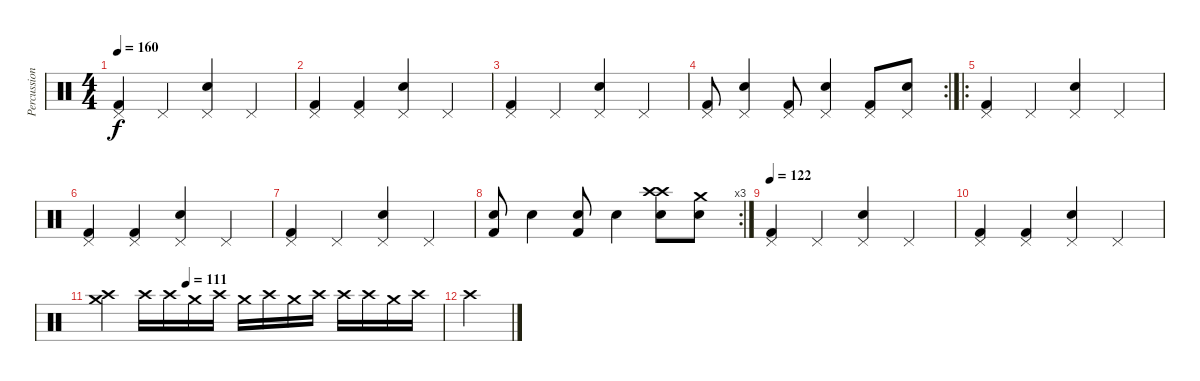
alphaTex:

\track ("Percussion" "Percussion") {instrument percussion}
\staff {score}
\articulation defaults
\ts (4 4)
\tempo 160
\clef neutral
\ks c
("Kick (hit) 2" "Pedal Hi-Hat (hit)").4{dy f} "Pedal Hi-Hat (hit)".4 ("Snare (hit) 2" "Pedal Hi-Hat (hit)").4 "Pedal Hi-Hat (hit)".4 |
("Kick (hit) 2" "Pedal Hi-Hat (hit)").4 ("Kick (hit) 2" "Pedal Hi-Hat (hit)").4 ("Snare (hit) 2" "Pedal Hi-Hat (hit)").4 "Pedal Hi-Hat (hit)".4 |
("Kick (hit) 2" "Pedal Hi-Hat (hit)").4 "Pedal Hi-Hat (hit)".4 ("Snare (hit) 2" "Pedal Hi-Hat (hit)").4 "Pedal Hi-Hat (hit)".4 |
\rc 2
("Kick (hit) 2" "Pedal Hi-Hat (hit)").8 ("Snare (hit) 2" "Pedal Hi-Hat (hit)").4 ("Kick (hit) 2" "Pedal Hi-Hat (hit)").8 ("Snare (hit) 2" "Pedal Hi-Hat (hit)").4 ("Kick (hit) 2" "Pedal Hi-Hat (hit)").8 ("Snare (hit) 2" "Pedal Hi-Hat (hit)").8 |
\ro
("Kick (hit) 2" "Pedal Hi-Hat (hit)").4 "Pedal Hi-Hat (hit)".4 ("Snare (hit) 2" "Pedal Hi-Hat (hit)").4 "Pedal Hi-Hat (hit)".4 |
("Kick (hit) 2" "Pedal Hi-Hat (hit)").4 ("Kick (hit) 2" "Pedal Hi-Hat (hit)").4 ("Snare (hit) 2" "Pedal Hi-Hat (hit)").4 "Pedal Hi-Hat (hit)".4 |
("Kick (hit) 2" "Pedal Hi-Hat (hit)").4 "Pedal Hi-Hat (hit)".4 ("Snare (hit) 2" "Pedal Hi-Hat (hit)").4 "Pedal Hi-Hat (hit)".4 |
\rc 3
("Snare (hit) 2" "Kick (hit) 2").8 "Snare (hit) 2".4 ("Snare (hit) 2" "Kick (hit) 2").8 "Snare (hit) 2".4 ("Crash high (hit)" "Snare (hit) 2" "Crash high (hit)").8 ("Snare (hit) 2" "Crash medium (hit)").8 |
\tempo 122
("Kick (hit) 2" "Pedal Hi-Hat (hit)").4 "Pedal Hi-Hat (hit)".4 ("Snare (hit) 2" "Pedal Hi-Hat (hit)").4 "Pedal Hi-Hat (hit)".4 |
("Kick (hit) 2" "Pedal Hi-Hat (hit)").4 ("Kick (hit) 2" "Pedal Hi-Hat (hit)").4 ("Snare (hit) 2" "Pedal Hi-Hat (hit)").4 "Pedal Hi-Hat (hit)".4 |
\tempo (111 0.25)
("Crash high (hit)" "Crash medium (hit)").4 "Crash high (hit)".16{volume 5} "Crash high (hit)".16 "Crash medium (hit)".16 "Crash high (hit)".16 "Crash medium (hit)".16 "Crash high (hit)".16 "Crash medium (hit)".16 "Crash high (hit)".16 "Crash high (hit)".16 "Crash high (hit)".16 "Crash medium (hit)".16 "Crash high (hit)".16 |
"Crash high (hit)".2{volume 16}
